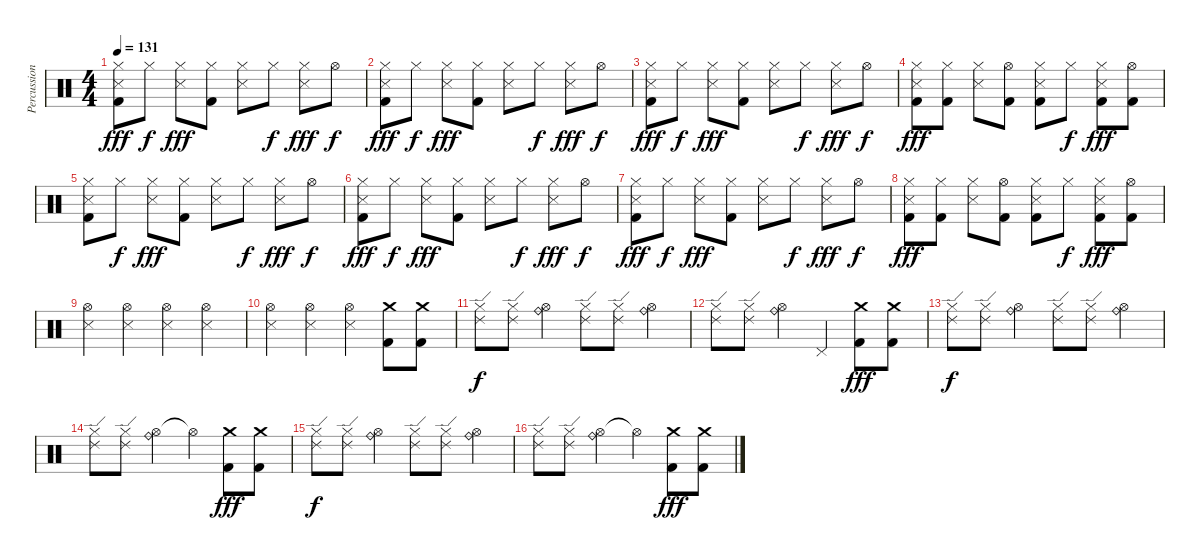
\track ("Percussion" "Percussion") {instrument percussion}
\staff {score}
\articulation defaults
\ts (4 4)
\tempo 131
\clef neutral
\ks c
("Hi-Hat (closed)" "Snare (side stick) 3" "Kick (hit) 2").8{dy fff} "Hi-Hat (closed)".8{dy f} ("Hi-Hat (closed)" "Snare (side stick) 3").8{dy fff} ("Hi-Hat (closed)" "Kick (hit) 2").8 ("Hi-Hat (closed)" "Snare (side stick) 3").8 "Hi-Hat (closed)".8{dy f} ("Hi-Hat (closed)" "Snare (side stick) 3").8{dy fff} "Hi-Hat (open)".8{dy f} |
("Hi-Hat (closed)" "Snare (side stick) 3" "Kick (hit) 2").8{dy fff} "Hi-Hat (closed)".8{dy f} ("Hi-Hat (closed)" "Snare (side stick) 3").8{dy fff} ("Hi-Hat (closed)" "Kick (hit) 2").8 ("Hi-Hat (closed)" "Snare (side stick) 3").8 "Hi-Hat (closed)".8{dy f} ("Hi-Hat (closed)" "Snare (side stick) 3").8{dy fff} "Hi-Hat (open)".8{dy f} |
("Hi-Hat (closed)" "Snare (side stick) 3" "Kick (hit) 2").8{dy fff} "Hi-Hat (closed)".8{dy f} ("Hi-Hat (closed)" "Snare (side stick) 3").8{dy fff} ("Hi-Hat (closed)" "Kick (hit) 2").8 ("Hi-Hat (closed)" "Snare (side stick) 3").8 "Hi-Hat (closed)".8{dy f} ("Hi-Hat (closed)" "Snare (side stick) 3").8{dy fff} "Hi-Hat (open)".8{dy f} |
("Hi-Hat (closed)" "Snare (side stick) 3" "Kick (hit) 2").8{dy fff} ("Hi-Hat (closed)" "Kick (hit) 2").8 ("Hi-Hat (closed)" "Snare (side stick) 3").8 ("Hi-Hat (open)" "Kick (hit) 2").8 ("Hi-Hat (closed)" "Snare (side stick) 3" "Kick (hit) 2").8 "Hi-Hat (closed)".8{dy f} ("Hi-Hat (closed)" "Snare (side stick) 3" "Kick (hit) 2").8{dy fff} ("Hi-Hat (open)" "Kick (hit) 2").8 |
("Hi-Hat (closed)" "Snare (side stick) 3" "Kick (hit) 2").8 "Hi-Hat (closed)".8{dy f} ("Hi-Hat (closed)" "Snare (side stick) 3").8{dy fff} ("Hi-Hat (closed)" "Kick (hit) 2").8 ("Hi-Hat (closed)" "Snare (side stick) 3").8 "Hi-Hat (closed)".8{dy f} ("Hi-Hat (closed)" "Snare (side stick) 3").8{dy fff} "Hi-Hat (open)".8{dy f} |
("Hi-Hat (closed)" "Snare (side stick) 3" "Kick (hit) 2").8{dy fff} "Hi-Hat (closed)".8{dy f} ("Hi-Hat (closed)" "Snare (side stick) 3").8{dy fff} ("Hi-Hat (closed)" "Kick (hit) 2").8 ("Hi-Hat (closed)" "Snare (side stick) 3").8 "Hi-Hat (closed)".8{dy f} ("Hi-Hat (closed)" "Snare (side stick) 3").8{dy fff} "Hi-Hat (open)".8{dy f} |
("Hi-Hat (closed)" "Snare (side stick) 3" "Kick (hit) 2").8{dy fff} "Hi-Hat (closed)".8{dy f} ("Hi-Hat (closed)" "Snare (side stick) 3").8{dy fff} ("Hi-Hat (closed)" "Kick (hit) 2").8 ("Hi-Hat (closed)" "Snare (side stick) 3").8 "Hi-Hat (closed)".8{dy f} ("Hi-Hat (closed)" "Snare (side stick) 3").8{dy fff} "Hi-Hat (open)".8{dy f} |
("Hi-Hat (closed)" "Snare (side stick) 3" "Kick (hit) 2").8{dy fff} ("Hi-Hat (closed)" "Kick (hit) 2").8 ("Hi-Hat (closed)" "Snare (side stick) 3").8 ("Hi-Hat (open)" "Kick (hit) 2").8 ("Hi-Hat (closed)" "Snare (side stick) 3" "Kick (hit) 2").8 "Hi-Hat (closed)".8{dy f} ("Hi-Hat (closed)" "Snare (side stick) 3" "Kick (hit) 2").8{dy fff} ("Hi-Hat (open)" "Kick (hit) 2").8 |
("Hi-Hat (open)" "Snare (side stick) 3").4 ("Hi-Hat (open)" "Snare (side stick) 3").4 ("Hi-Hat (open)" "Snare (side stick) 3").4 ("Hi-Hat (open)" "Snare (side stick) 3").4 |
("Hi-Hat (open)" "Snare (side stick) 3").4 ("Hi-Hat (open)" "Snare (side stick) 3").4 ("Hi-Hat (open)" "Snare (side stick) 3").4 ("Crash medium (hit)" "Kick (hit) 2").8 ("Crash medium (hit)" "Kick (hit) 2").8 |
("Hi-Hat (closed)" "Ride (edge) 2").8{dy f} ("Hi-Hat (closed)" "Ride (edge) 2").8 ("Hi-Hat (open)" "Ride (bell)").4 ("Hi-Hat (closed)" "Ride (edge) 2").8 ("Hi-Hat (closed)" "Ride (edge) 2").8 ("Hi-Hat (open)" "Ride (bell)").4 |
("Hi-Hat (closed)" "Ride (edge) 2").8 ("Hi-Hat (closed)" "Ride (edge) 2").8 ("Hi-Hat (open)" "Ride (bell)").4 "Pedal Hi-Hat (hit)".4 ("Crash medium (hit)" "Kick (hit) 2").8{dy fff} ("Crash medium (hit)" "Kick (hit) 2").8 |
("Hi-Hat (closed)" "Ride (edge) 2").8{dy f} ("Hi-Hat (closed)" "Ride (edge) 2").8 ("Hi-Hat (open)" "Ride (bell)").4 ("Hi-Hat (closed)" "Ride (edge) 2").8 ("Hi-Hat (closed)" "Ride (edge) 2").8 ("Hi-Hat (open)" "Ride (bell)").4 |
("Hi-Hat (closed)" "Ride (edge) 2").8 ("Hi-Hat (closed)" "Ride (edge) 2").8 ("Hi-Hat (open)" "Ride (bell)").4 "Hi-Hat (open)"{t}.4 ("Crash medium (hit)" "Kick (hit) 2").8{dy fff} ("Crash medium (hit)" "Kick (hit) 2").8 |
("Hi-Hat (closed)" "Ride (edge) 2").8{dy f} ("Hi-Hat (closed)" "Ride (edge) 2").8 ("Hi-Hat (open)" "Ride (bell)").4 ("Hi-Hat (closed)" "Ride (edge) 2").8 ("Hi-Hat (closed)" "Ride (edge) 2").8 ("Hi-Hat (open)" "Ride (bell)").4 |
("Hi-Hat (closed)" "Ride (edge) 2").8 ("Hi-Hat (closed)" "Ride (edge) 2").8 ("Hi-Hat (open)" "Ride (bell)").4 "Hi-Hat (open)"{t}.4 ("Crash medium (hit)" "Kick (hit) 2").8{dy fff} ("Crash medium (hit)" "Kick (hit) 2").8
